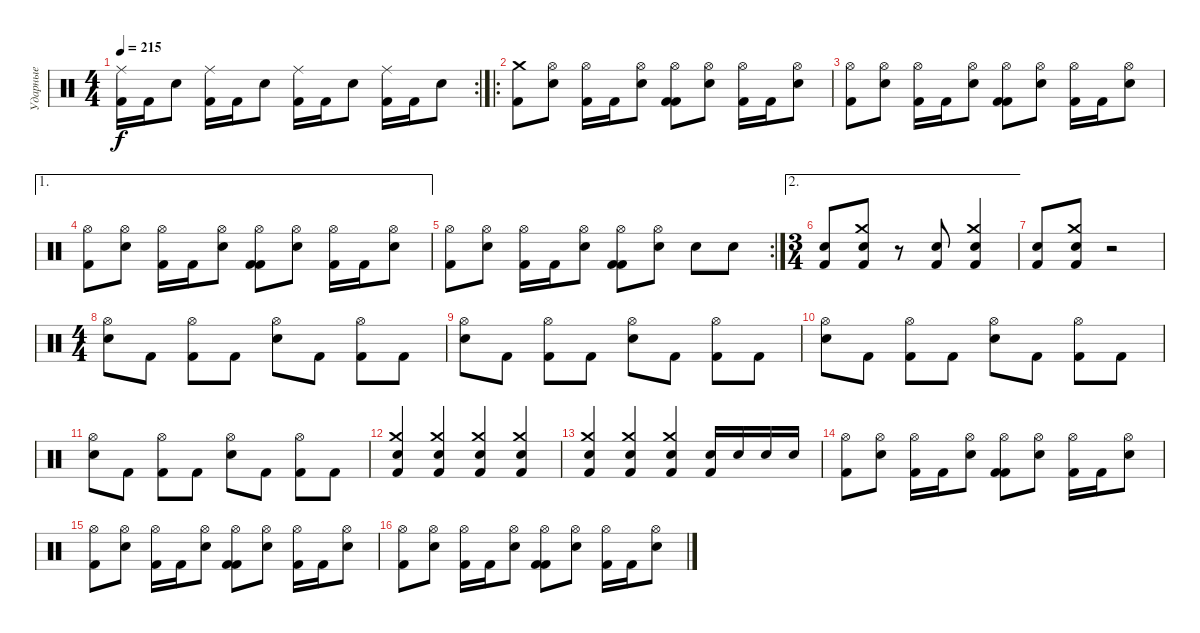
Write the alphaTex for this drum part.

\track ("Ударные" "Ударные") {instrument percussion}
\staff {score}
\articulation defaults
\rc 2
\ts (4 4)
\tempo 215
\clef neutral
\ks c
("Ride (middle)" "Kick (hit) 2").16{dy f} "Kick (hit) 2".16 "Electric Snare (hit)".8 ("Ride (middle)" "Kick (hit) 2").16 "Kick (hit) 2".16 "Electric Snare (hit)".8 ("Ride (middle)" "Kick (hit) 2").16 "Kick (hit) 2".16 "Electric Snare (hit)".8 ("Ride (middle)" "Kick (hit) 2").16 "Kick (hit) 2".16 "Electric Snare (hit)".8 |
\ro
("Kick (hit) 2" "Crash medium (hit)").8 ("Hi-Hat (open)" "Electric Snare (hit)").8 ("Kick (hit) 2" "Hi-Hat (open)").16 "Kick (hit) 2".16 ("Hi-Hat (open)" "Electric Snare (hit)").8 ("Kick (hit) 2" "Kick (hit) 2" "Hi-Hat (open)").8 ("Hi-Hat (open)" "Electric Snare (hit)").8 ("Kick (hit) 2" "Hi-Hat (open)").16 "Kick (hit) 2".16 ("Hi-Hat (open)" "Electric Snare (hit)").8 |
("Kick (hit) 2" "Hi-Hat (open)").8 ("Hi-Hat (open)" "Electric Snare (hit)").8 ("Kick (hit) 2" "Hi-Hat (open)").16 "Kick (hit) 2".16 ("Hi-Hat (open)" "Electric Snare (hit)").8 ("Kick (hit) 2" "Kick (hit) 2" "Hi-Hat (open)").8 ("Hi-Hat (open)" "Electric Snare (hit)").8 ("Kick (hit) 2" "Hi-Hat (open)").16 "Kick (hit) 2".16 ("Hi-Hat (open)" "Electric Snare (hit)").8 |
\ae 1
("Kick (hit) 2" "Hi-Hat (open)").8 ("Hi-Hat (open)" "Electric Snare (hit)").8 ("Kick (hit) 2" "Hi-Hat (open)").16 "Kick (hit) 2".16 ("Hi-Hat (open)" "Electric Snare (hit)").8 ("Kick (hit) 2" "Kick (hit) 2" "Hi-Hat (open)").8 ("Hi-Hat (open)" "Electric Snare (hit)").8 ("Kick (hit) 2" "Hi-Hat (open)").16 "Kick (hit) 2".16 ("Hi-Hat (open)" "Electric Snare (hit)").8 |
\rc 2
("Kick (hit) 2" "Hi-Hat (open)").8 ("Hi-Hat (open)" "Electric Snare (hit)").8 ("Kick (hit) 2" "Hi-Hat (open)").16 "Kick (hit) 2".16 ("Hi-Hat (open)" "Electric Snare (hit)").8 ("Kick (hit) 2" "Kick (hit) 2" "Hi-Hat (open)").8 ("Hi-Hat (open)" "Electric Snare (hit)").8 "Electric Snare (hit)".8 "Electric Snare (hit)".8 |
\ae 2
\ts (3 4)
("Snare (hit) 2" "Kick (hit) 2").8 ("Crash medium (hit)" "Snare (hit) 2" "Kick (hit) 2").8 r.8 ("Snare (hit) 2" "Kick (hit) 2").8 ("Crash medium (hit)" "Snare (hit) 2" "Kick (hit) 2").4 |
("Snare (hit) 2" "Kick (hit) 2").8 ("Crash medium (hit)" "Snare (hit) 2" "Kick (hit) 2").8 r.2 |
\ts (4 4)
("Hi-Hat (open)" "Snare (hit) 2").8 "Kick (hit) 2".8 ("Hi-Hat (open)" "Kick (hit) 2").8 "Kick (hit) 2".8 ("Hi-Hat (open)" "Snare (hit) 2").8 "Kick (hit) 2".8 ("Hi-Hat (open)" "Kick (hit) 2").8 "Kick (hit) 2".8 |
("Hi-Hat (open)" "Snare (hit) 2").8 "Kick (hit) 2".8 ("Hi-Hat (open)" "Kick (hit) 2").8 "Kick (hit) 2".8 ("Hi-Hat (open)" "Snare (hit) 2").8 "Kick (hit) 2".8 ("Hi-Hat (open)" "Kick (hit) 2").8 "Kick (hit) 2".8 |
("Hi-Hat (open)" "Snare (hit) 2").8 "Kick (hit) 2".8 ("Hi-Hat (open)" "Kick (hit) 2").8 "Kick (hit) 2".8 ("Hi-Hat (open)" "Snare (hit) 2").8 "Kick (hit) 2".8 ("Hi-Hat (open)" "Kick (hit) 2").8 "Kick (hit) 2".8 |
("Hi-Hat (open)" "Snare (hit) 2").8 "Kick (hit) 2".8 ("Hi-Hat (open)" "Kick (hit) 2").8 "Kick (hit) 2".8 ("Hi-Hat (open)" "Snare (hit) 2").8 "Kick (hit) 2".8 ("Hi-Hat (open)" "Kick (hit) 2").8 "Kick (hit) 2".8 |
("Crash medium (hit)" "Snare (hit) 2" "Kick (hit) 2").4 ("Crash medium (hit)" "Snare (hit) 2" "Kick (hit) 2").4 ("Crash medium (hit)" "Snare (hit) 2" "Kick (hit) 2").4 ("Crash medium (hit)" "Snare (hit) 2" "Kick (hit) 2").4 |
("Crash medium (hit)" "Snare (hit) 2" "Kick (hit) 2").4 ("Crash medium (hit)" "Snare (hit) 2" "Kick (hit) 2").4 ("Crash medium (hit)" "Snare (hit) 2" "Kick (hit) 2").4 ("Electric Snare (hit)" "Kick (hit) 2").16 "Electric Snare (hit)".16 "Electric Snare (hit)".16 "Electric Snare (hit)".16 |
("Kick (hit) 2" "Hi-Hat (open)").8 ("Hi-Hat (open)" "Electric Snare (hit)").8 ("Kick (hit) 2" "Hi-Hat (open)").16 "Kick (hit) 2".16 ("Hi-Hat (open)" "Electric Snare (hit)").8 ("Kick (hit) 2" "Kick (hit) 2" "Hi-Hat (open)").8 ("Hi-Hat (open)" "Electric Snare (hit)").8 ("Kick (hit) 2" "Hi-Hat (open)").16 "Kick (hit) 2".16 ("Hi-Hat (open)" "Electric Snare (hit)").8 |
("Kick (hit) 2" "Hi-Hat (open)").8 ("Hi-Hat (open)" "Electric Snare (hit)").8 ("Kick (hit) 2" "Hi-Hat (open)").16 "Kick (hit) 2".16 ("Hi-Hat (open)" "Electric Snare (hit)").8 ("Kick (hit) 2" "Kick (hit) 2" "Hi-Hat (open)").8 ("Hi-Hat (open)" "Electric Snare (hit)").8 ("Kick (hit) 2" "Hi-Hat (open)").16 "Kick (hit) 2".16 ("Hi-Hat (open)" "Electric Snare (hit)").8 |
("Kick (hit) 2" "Hi-Hat (open)").8 ("Hi-Hat (open)" "Electric Snare (hit)").8 ("Kick (hit) 2" "Hi-Hat (open)").16 "Kick (hit) 2".16 ("Hi-Hat (open)" "Electric Snare (hit)").8 ("Kick (hit) 2" "Kick (hit) 2" "Hi-Hat (open)").8 ("Hi-Hat (open)" "Electric Snare (hit)").8 ("Kick (hit) 2" "Hi-Hat (open)").16 "Kick (hit) 2".16 ("Hi-Hat (open)" "Electric Snare (hit)").8
